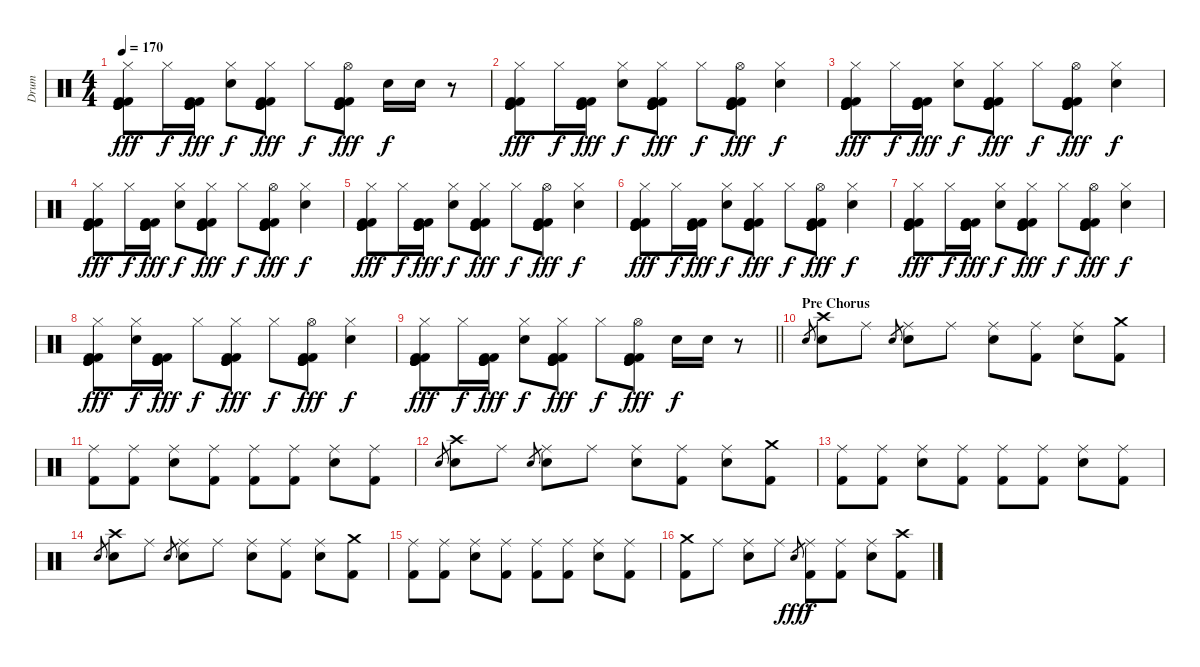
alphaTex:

\track ("Drum" "Drum") {instrument percussion}
\staff {score}
\articulation defaults
\ts (4 4)
\tempo 170
\clef neutral
\ks c
("Hi-Hat (closed)" "Kick (hit)" "Kick (hit)" "Kick (hit)" "Kick (hit) 2" "Kick (hit) 2").8{dy fff} "Hi-Hat (closed)".16{dy f} ("Kick (hit)" "Kick (hit)" "Kick (hit)" "Kick (hit) 2" "Kick (hit) 2").16{dy fff} ("Hi-Hat (closed)" "Electric Snare (hit)").8{dy f} ("Hi-Hat (closed)" "Kick (hit)" "Kick (hit)" "Kick (hit)" "Kick (hit) 2" "Kick (hit) 2").8{dy fff} "Hi-Hat (closed)".8{dy f} ("Hi-Hat (open)" "Kick (hit)" "Kick (hit)" "Kick (hit)" "Kick (hit) 2" "Kick (hit) 2").8{dy fff} "Electric Snare (hit)".16{dy f} "Electric Snare (hit)".16 r.8 |
("Hi-Hat (closed)" "Kick (hit)" "Kick (hit)" "Kick (hit)" "Kick (hit) 2" "Kick (hit) 2").8{dy fff} "Hi-Hat (closed)".16{dy f} ("Kick (hit)" "Kick (hit)" "Kick (hit)" "Kick (hit) 2" "Kick (hit) 2").16{dy fff} ("Hi-Hat (closed)" "Electric Snare (hit)").8{dy f} ("Hi-Hat (closed)" "Kick (hit)" "Kick (hit)" "Kick (hit)" "Kick (hit) 2" "Kick (hit) 2").8{dy fff} "Hi-Hat (closed)".8{dy f} ("Hi-Hat (open)" "Kick (hit)" "Kick (hit)" "Kick (hit)" "Kick (hit) 2" "Kick (hit) 2").8{dy fff} ("Hi-Hat (closed)" "Electric Snare (hit)").4{dy f} |
("Hi-Hat (closed)" "Kick (hit)" "Kick (hit)" "Kick (hit)" "Kick (hit) 2" "Kick (hit) 2").8{dy fff} "Hi-Hat (closed)".16{dy f} ("Kick (hit)" "Kick (hit)" "Kick (hit)" "Kick (hit) 2" "Kick (hit) 2").16{dy fff} ("Hi-Hat (closed)" "Electric Snare (hit)").8{dy f} ("Hi-Hat (closed)" "Kick (hit)" "Kick (hit)" "Kick (hit)" "Kick (hit) 2" "Kick (hit) 2").8{dy fff} "Hi-Hat (closed)".8{dy f} ("Hi-Hat (open)" "Kick (hit)" "Kick (hit)" "Kick (hit)" "Kick (hit) 2" "Kick (hit) 2").8{dy fff} ("Hi-Hat (closed)" "Electric Snare (hit)").4{dy f} |
("Hi-Hat (closed)" "Kick (hit)" "Kick (hit)" "Kick (hit)" "Kick (hit) 2" "Kick (hit) 2").8{dy fff} "Hi-Hat (closed)".16{dy f} ("Kick (hit)" "Kick (hit)" "Kick (hit)" "Kick (hit) 2" "Kick (hit) 2").16{dy fff} ("Hi-Hat (closed)" "Electric Snare (hit)").8{dy f} ("Hi-Hat (closed)" "Kick (hit)" "Kick (hit)" "Kick (hit)" "Kick (hit) 2" "Kick (hit) 2").8{dy fff} "Hi-Hat (closed)".8{dy f} ("Hi-Hat (open)" "Kick (hit)" "Kick (hit)" "Kick (hit)" "Kick (hit) 2" "Kick (hit) 2").8{dy fff} ("Hi-Hat (closed)" "Electric Snare (hit)").4{dy f} |
("Hi-Hat (closed)" "Kick (hit)" "Kick (hit)" "Kick (hit)" "Kick (hit) 2" "Kick (hit) 2").8{dy fff} "Hi-Hat (closed)".16{dy f} ("Kick (hit)" "Kick (hit)" "Kick (hit)" "Kick (hit) 2" "Kick (hit) 2").16{dy fff} ("Hi-Hat (closed)" "Electric Snare (hit)").8{dy f} ("Hi-Hat (closed)" "Kick (hit)" "Kick (hit)" "Kick (hit)" "Kick (hit) 2" "Kick (hit) 2").8{dy fff} "Hi-Hat (closed)".8{dy f} ("Hi-Hat (open)" "Kick (hit)" "Kick (hit)" "Kick (hit)" "Kick (hit) 2" "Kick (hit) 2").8{dy fff} ("Hi-Hat (closed)" "Electric Snare (hit)").4{dy f} |
("Hi-Hat (closed)" "Kick (hit)" "Kick (hit)" "Kick (hit)" "Kick (hit) 2" "Kick (hit) 2").8{dy fff} "Hi-Hat (closed)".16{dy f} ("Kick (hit)" "Kick (hit)" "Kick (hit)" "Kick (hit) 2" "Kick (hit) 2").16{dy fff} ("Hi-Hat (closed)" "Electric Snare (hit)").8{dy f} ("Hi-Hat (closed)" "Kick (hit)" "Kick (hit)" "Kick (hit)" "Kick (hit) 2" "Kick (hit) 2").8{dy fff} "Hi-Hat (closed)".8{dy f} ("Hi-Hat (open)" "Kick (hit)" "Kick (hit)" "Kick (hit)" "Kick (hit) 2" "Kick (hit) 2").8{dy fff} ("Hi-Hat (closed)" "Electric Snare (hit)").4{dy f} |
("Hi-Hat (closed)" "Kick (hit)" "Kick (hit)" "Kick (hit)" "Kick (hit) 2" "Kick (hit) 2").8{dy fff} "Hi-Hat (closed)".16{dy f} ("Kick (hit)" "Kick (hit)" "Kick (hit)" "Kick (hit) 2" "Kick (hit) 2").16{dy fff} ("Hi-Hat (closed)" "Electric Snare (hit)").8{dy f} ("Hi-Hat (closed)" "Kick (hit)" "Kick (hit)" "Kick (hit)" "Kick (hit) 2" "Kick (hit) 2").8{dy fff} "Hi-Hat (closed)".8{dy f} ("Hi-Hat (open)" "Kick (hit)" "Kick (hit)" "Kick (hit)" "Kick (hit) 2" "Kick (hit) 2").8{dy fff} ("Hi-Hat (closed)" "Electric Snare (hit)").4{dy f} |
("Hi-Hat (closed)" "Kick (hit)" "Kick (hit)" "Kick (hit)" "Kick (hit) 2" "Kick (hit) 2").8{dy fff} ("Hi-Hat (closed)" "Electric Snare (hit)").16{dy f} ("Kick (hit)" "Kick (hit)" "Kick (hit)" "Kick (hit) 2" "Kick (hit) 2").16{dy fff} "Hi-Hat (closed)".8{dy f} ("Hi-Hat (closed)" "Kick (hit)" "Kick (hit)" "Kick (hit)" "Kick (hit) 2" "Kick (hit) 2").8{dy fff} "Hi-Hat (closed)".8{dy f} ("Hi-Hat (open)" "Kick (hit)" "Kick (hit)" "Kick (hit)" "Kick (hit) 2" "Kick (hit) 2").8{dy fff} ("Hi-Hat (closed)" "Electric Snare (hit)").4{dy f} |
\barLineRight lightlight
("Hi-Hat (closed)" "Kick (hit)" "Kick (hit)" "Kick (hit)" "Kick (hit) 2" "Kick (hit) 2").8{dy fff} "Hi-Hat (closed)".16{dy f} ("Kick (hit)" "Kick (hit)" "Kick (hit)" "Kick (hit) 2" "Kick (hit) 2").16{dy fff} ("Hi-Hat (closed)" "Electric Snare (hit)").8{dy f} ("Hi-Hat (closed)" "Kick (hit)" "Kick (hit)" "Kick (hit)" "Kick (hit) 2" "Kick (hit) 2").8{dy fff} "Hi-Hat (closed)".8{dy f} ("Hi-Hat (open)" "Kick (hit)" "Kick (hit)" "Kick (hit)" "Kick (hit) 2" "Kick (hit) 2").8{dy fff} "Electric Snare (hit)".16{dy f} "Electric Snare (hit)".16 r.8 |
\section ("" "Pre Chorus")
"Electric Snare (hit)".8{gr} ("Crash high (hit)" "Electric Snare (hit)").8 "Ride (middle)".8 "Electric Snare (hit)".8{gr} ("Ride (middle)" "Electric Snare (hit)").8 "Ride (middle)".8 ("Ride (middle)" "Electric Snare (hit)").8 ("Ride (middle)" "Kick (hit) 2").8 ("Ride (middle)" "Electric Snare (hit)").8 ("Crash medium (hit)" "Kick (hit) 2").8 |
("Ride (middle)" "Kick (hit) 2").8 ("Ride (middle)" "Kick (hit) 2").8 ("Ride (middle)" "Electric Snare (hit)").8 ("Ride (middle)" "Kick (hit) 2").8 ("Ride (middle)" "Kick (hit) 2").8 ("Ride (middle)" "Kick (hit) 2").8 ("Ride (middle)" "Electric Snare (hit)").8 ("Ride (middle)" "Kick (hit) 2").8 |
"Electric Snare (hit)".8{gr} ("Crash high (hit)" "Electric Snare (hit)").8 "Ride (middle)".8 "Electric Snare (hit)".8{gr} ("Ride (middle)" "Electric Snare (hit)").8 "Ride (middle)".8 ("Ride (middle)" "Electric Snare (hit)").8 ("Ride (middle)" "Kick (hit) 2").8 ("Ride (middle)" "Electric Snare (hit)").8 ("Crash medium (hit)" "Kick (hit) 2").8 |
("Ride (middle)" "Kick (hit) 2").8 ("Ride (middle)" "Kick (hit) 2").8 ("Ride (middle)" "Electric Snare (hit)").8 ("Ride (middle)" "Kick (hit) 2").8 ("Ride (middle)" "Kick (hit) 2").8 ("Ride (middle)" "Kick (hit) 2").8 ("Ride (middle)" "Electric Snare (hit)").8 ("Ride (middle)" "Kick (hit) 2").8 |
"Electric Snare (hit)".8{gr} ("Crash high (hit)" "Electric Snare (hit)").8 "Ride (middle)".8 "Electric Snare (hit)".8{gr} ("Ride (middle)" "Electric Snare (hit)").8 "Ride (middle)".8 ("Ride (middle)" "Electric Snare (hit)").8 ("Ride (middle)" "Kick (hit) 2").8 ("Ride (middle)" "Electric Snare (hit)").8 ("Crash medium (hit)" "Kick (hit) 2").8 |
("Ride (middle)" "Kick (hit) 2").8 ("Ride (middle)" "Kick (hit) 2").8 ("Ride (middle)" "Electric Snare (hit)").8 ("Ride (middle)" "Kick (hit) 2").8 ("Ride (middle)" "Kick (hit) 2").8 ("Ride (middle)" "Kick (hit) 2").8 ("Ride (middle)" "Electric Snare (hit)").8 ("Ride (middle)" "Kick (hit) 2").8 |
("Crash medium (hit)" "Kick (hit) 2").8 "Ride (middle)".8 ("Ride (middle)" "Electric Snare (hit)").8 "Ride (middle)".8 "Electric Snare (hit)".8{gr dy fff} ("Ride (middle)" "Kick (hit) 2").8{dy f} ("Ride (middle)" "Kick (hit) 2").8 ("Ride (middle)" "Electric Snare (hit)").8 ("Crash high (hit)" "Kick (hit) 2").8
